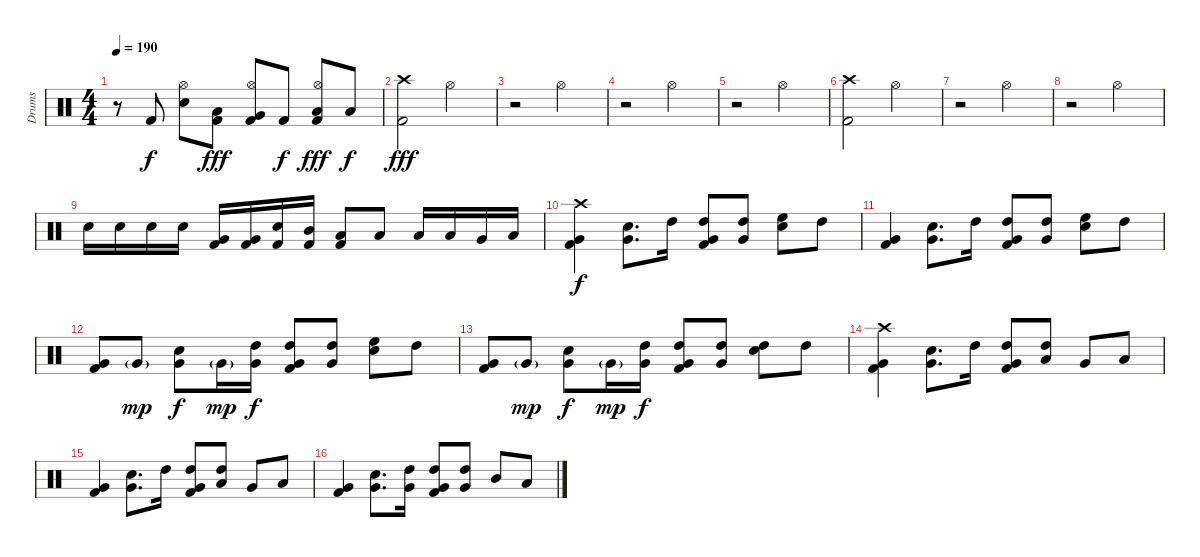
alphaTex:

\track ("Drums" "Drums") {instrument percussion}
\staff {score}
\articulation defaults
\ts (4 4)
\tempo 190
\clef neutral
\ks c
r.8{dy f} "Kick (hit) 2".8 ("Hi-Hat (open)" "Electric Snare (hit)").8 ("Low Tom (hit)" "Kick (hit) 2").8{dy fff} ("Hi-Hat (open)" "Very Low Tom (hit)" "Kick (hit) 2").8 "Kick (hit) 2".8{dy f} ("Hi-Hat (open)" "Low Floor Tom (hit)" "Kick (hit) 2").8{dy fff} "Low Floor Tom (hit)".8{dy f} |
("Crash high (hit)" "Kick (hit) 2").2{dy fff} "Hi-Hat (open)".2 |
r.2 "Hi-Hat (open)".2 |
r.2 "Hi-Hat (open)".2 |
r.2 "Hi-Hat (open)".2 |
("Crash high (hit)" "Kick (hit) 2").2 "Hi-Hat (open)".2 |
r.2 "Hi-Hat (open)".2 |
r.2 "Hi-Hat (open)".2 |
"Electric Snare (hit)".16 "Electric Snare (hit)".16 "Electric Snare (hit)".16 "Electric Snare (hit)".16 ("Very Low Tom (hit)" "Kick (hit) 2").16 ("Very Low Tom (hit)" "Kick (hit) 2").16 ("Electric Snare (hit)" "Kick (hit) 2").16 ("Mid Tom (hit)" "Kick (hit) 2").16 ("Low Tom (hit)" "Kick (hit) 2").8 "Low Tom (hit)".8 "Low Tom (hit)".16 "Low Tom (hit)".16 "Very Low Tom (hit)".16 "Low Floor Tom (hit)".16 |
("Crash high (hit)" "Very Low Tom (hit)" "Kick (hit) 2").4{dy f} ("Electric Snare (hit)" "Very Low Tom (hit)").8{d} "High Tom (hit)".16 ("High Tom (hit)" "Very Low Tom (hit)" "Kick (hit) 2").8 ("High Tom (hit)" "Very Low Tom (hit)").8 ("High Floor Tom (hit)" "Electric Snare (hit)").8 "High Tom (hit)".8 |
("Very Low Tom (hit)" "Kick (hit) 2").4 ("Electric Snare (hit)" "Very Low Tom (hit)").8{d} "High Tom (hit)".16 ("High Tom (hit)" "Very Low Tom (hit)" "Kick (hit) 2").8 ("High Tom (hit)" "Very Low Tom (hit)").8 ("High Floor Tom (hit)" "Electric Snare (hit)").8 "High Tom (hit)".8 |
("Very Low Tom (hit)" "Kick (hit) 2").8 "Very Low Tom (hit)"{g}.8{dy mp} ("Electric Snare (hit)" "Very Low Tom (hit)").8{dy f} "Very Low Tom (hit)"{g}.16{dy mp} ("High Tom (hit)" "Very Low Tom (hit)").16{dy f} ("High Tom (hit)" "Very Low Tom (hit)" "Kick (hit) 2").8 ("High Tom (hit)" "Very Low Tom (hit)").8 ("High Floor Tom (hit)" "Electric Snare (hit)").8 "High Tom (hit)".8 |
("Very Low Tom (hit)" "Kick (hit) 2").8 "Very Low Tom (hit)"{g}.8{dy mp} ("Electric Snare (hit)" "Very Low Tom (hit)").8{dy f} "Very Low Tom (hit)"{g}.16{dy mp} ("High Tom (hit)" "Very Low Tom (hit)").16{dy f} ("High Tom (hit)" "Very Low Tom (hit)" "Kick (hit) 2").8 ("High Tom (hit)" "Very Low Tom (hit)").8 ("High Tom (hit)" "Electric Snare (hit)").8 "High Tom (hit)".8 |
("Crash high (hit)" "Very Low Tom (hit)" "Kick (hit) 2").4 ("Electric Snare (hit)" "Very Low Tom (hit)").8{d} "High Tom (hit)".16 ("High Tom (hit)" "Very Low Tom (hit)" "Kick (hit) 2").8 ("High Tom (hit)" "Low Tom (hit)").8 "Very Low Tom (hit)".8 "Low Floor Tom (hit)".8 |
("Very Low Tom (hit)" "Kick (hit) 2").4 ("Electric Snare (hit)" "Very Low Tom (hit)").8{d} "High Tom (hit)".16 ("High Tom (hit)" "Very Low Tom (hit)" "Kick (hit) 2").8 ("High Tom (hit)" "Low Tom (hit)").8 "Very Low Tom (hit)".8 "Low Floor Tom (hit)".8 |
("Very Low Tom (hit)" "Kick (hit) 2").4 ("Electric Snare (hit)" "Very Low Tom (hit)").8{d} ("High Tom (hit)" "Very Low Tom (hit)").16 ("High Tom (hit)" "Very Low Tom (hit)" "Kick (hit) 2").8 ("High Tom (hit)" "Very Low Tom (hit)").8 "Mid Tom (hit)".8 "Low Tom (hit)".8
